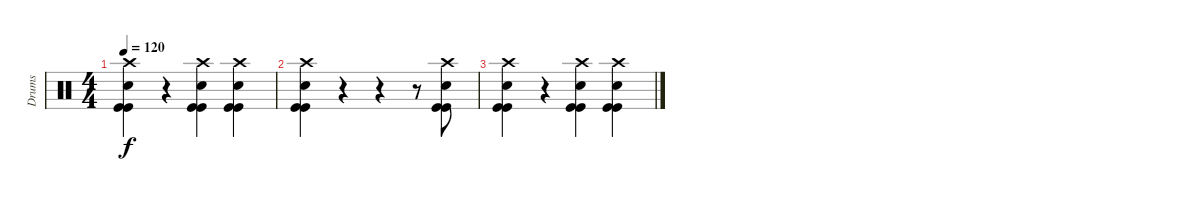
\track ("Drums" "Drums") {instrument percussion}
\staff {score}
\articulation defaults
\ts (4 4)
\tempo 120
\clef neutral
\ks c
("Crash high (hit)" "Snare (hit) 2" "Kick (hit)" "Kick (hit)").4{dy f} r.4 ("Crash high (hit)" "Snare (hit) 2" "Kick (hit)" "Kick (hit)").4 ("Crash high (hit)" "Snare (hit) 2" "Kick (hit)" "Kick (hit)").4 |
("Crash high (hit)" "Snare (hit) 2" "Kick (hit)" "Kick (hit)").4 r.4 r.4 r.8 ("Crash high (hit)" "Snare (hit) 2" "Kick (hit)" "Kick (hit)").8 |
("Crash high (hit)" "Snare (hit) 2" "Kick (hit)" "Kick (hit)").4 r.4 ("Crash high (hit)" "Snare (hit) 2" "Kick (hit)" "Kick (hit)").4 ("Crash high (hit)" "Snare (hit) 2" "Kick (hit)" "Kick (hit)").4
